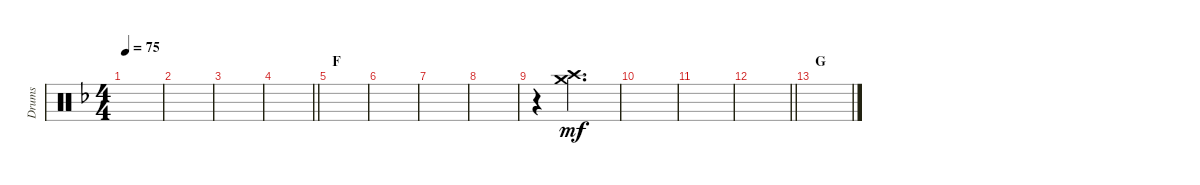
\track ("Drums" "Drums") {instrument percussion}
\staff {score}
\articulation defaults
\ts (4 4)
\tempo 75
\clef neutral
\ks dminor
|
|
|
\barLineRight lightlight
|
\section ("" "F")
|
|
|
|
r.4 ("Crash high (hit)" "Crash medium (hit)").2{d dy mf} |
|
|
\barLineRight lightlight
|
\section ("" "G")
